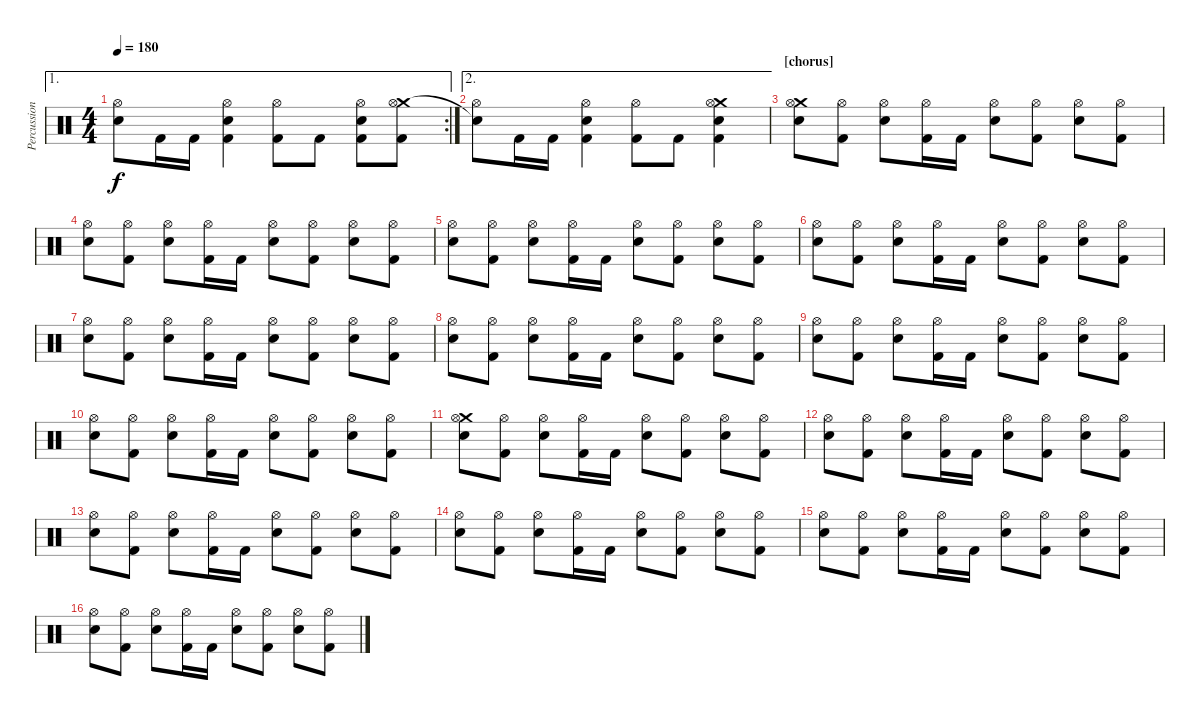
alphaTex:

\track ("Percussion" "Percussion") {instrument percussion}
\staff {score}
\articulation defaults
\ae 1
\rc 2
\ts (4 4)
\tempo 180
\clef neutral
\ks c
("Hi-Hat (open)" "Snare (hit)"{t}).8{dy f} "Kick (hit) 2".16 "Kick (hit) 2".16 ("Hi-Hat (open)" "Electric Snare (hit)" "Kick (hit) 2").4 ("Hi-Hat (open)" "Kick (hit) 2").8 "Kick (hit) 2".8 ("Hi-Hat (open)" "Electric Snare (hit)" "Kick (hit) 2").8 ("Crash medium (hit)" "Hi-Hat (open)" "Kick (hit) 2").8 |
\ae 2
("Hi-Hat (open)" "Snare (hit)"{t}).8 "Kick (hit) 2".16 "Kick (hit) 2".16 ("Hi-Hat (open)" "Electric Snare (hit)" "Kick (hit) 2").4 ("Hi-Hat (open)" "Kick (hit) 2").8 "Kick (hit) 2".8 ("Crash medium (hit)" "Hi-Hat (open)" "Electric Snare (hit)" "Kick (hit) 2").4 |
\section ("" "[chorus]")
("Crash medium (hit)" "Hi-Hat (open)" "Electric Snare (hit)").8 ("Hi-Hat (open)" "Kick (hit) 2").8 ("Hi-Hat (open)" "Electric Snare (hit)").8 ("Hi-Hat (open)" "Kick (hit) 2").16 "Kick (hit) 2".16 ("Hi-Hat (open)" "Electric Snare (hit)").8 ("Hi-Hat (open)" "Kick (hit) 2").8 ("Hi-Hat (open)" "Electric Snare (hit)").8 ("Hi-Hat (open)" "Kick (hit) 2").8 |
("Hi-Hat (open)" "Electric Snare (hit)").8 ("Hi-Hat (open)" "Kick (hit) 2").8 ("Hi-Hat (open)" "Electric Snare (hit)").8 ("Hi-Hat (open)" "Kick (hit) 2").16 "Kick (hit) 2".16 ("Hi-Hat (open)" "Electric Snare (hit)").8 ("Hi-Hat (open)" "Kick (hit) 2").8 ("Hi-Hat (open)" "Electric Snare (hit)").8 ("Hi-Hat (open)" "Kick (hit) 2").8 |
("Hi-Hat (open)" "Electric Snare (hit)").8 ("Hi-Hat (open)" "Kick (hit) 2").8 ("Hi-Hat (open)" "Electric Snare (hit)").8 ("Hi-Hat (open)" "Kick (hit) 2").16 "Kick (hit) 2".16 ("Hi-Hat (open)" "Electric Snare (hit)").8 ("Hi-Hat (open)" "Kick (hit) 2").8 ("Hi-Hat (open)" "Electric Snare (hit)").8 ("Hi-Hat (open)" "Kick (hit) 2").8 |
("Hi-Hat (open)" "Electric Snare (hit)").8 ("Hi-Hat (open)" "Kick (hit) 2").8 ("Hi-Hat (open)" "Electric Snare (hit)").8 ("Hi-Hat (open)" "Kick (hit) 2").16 "Kick (hit) 2".16 ("Hi-Hat (open)" "Electric Snare (hit)").8 ("Hi-Hat (open)" "Kick (hit) 2").8 ("Hi-Hat (open)" "Electric Snare (hit)").8 ("Hi-Hat (open)" "Kick (hit) 2").8 |
("Hi-Hat (open)" "Electric Snare (hit)").8 ("Hi-Hat (open)" "Kick (hit) 2").8 ("Hi-Hat (open)" "Electric Snare (hit)").8 ("Hi-Hat (open)" "Kick (hit) 2").16 "Kick (hit) 2".16 ("Hi-Hat (open)" "Electric Snare (hit)").8 ("Hi-Hat (open)" "Kick (hit) 2").8 ("Hi-Hat (open)" "Electric Snare (hit)").8 ("Hi-Hat (open)" "Kick (hit) 2").8 |
("Hi-Hat (open)" "Electric Snare (hit)").8 ("Hi-Hat (open)" "Kick (hit) 2").8 ("Hi-Hat (open)" "Electric Snare (hit)").8 ("Hi-Hat (open)" "Kick (hit) 2").16 "Kick (hit) 2".16 ("Hi-Hat (open)" "Electric Snare (hit)").8 ("Hi-Hat (open)" "Kick (hit) 2").8 ("Hi-Hat (open)" "Electric Snare (hit)").8 ("Hi-Hat (open)" "Kick (hit) 2").8 |
("Hi-Hat (open)" "Electric Snare (hit)").8 ("Hi-Hat (open)" "Kick (hit) 2").8 ("Hi-Hat (open)" "Electric Snare (hit)").8 ("Hi-Hat (open)" "Kick (hit) 2").16 "Kick (hit) 2".16 ("Hi-Hat (open)" "Electric Snare (hit)").8 ("Hi-Hat (open)" "Kick (hit) 2").8 ("Hi-Hat (open)" "Electric Snare (hit)").8 ("Hi-Hat (open)" "Kick (hit) 2").8 |
("Hi-Hat (open)" "Electric Snare (hit)").8 ("Hi-Hat (open)" "Kick (hit) 2").8 ("Hi-Hat (open)" "Electric Snare (hit)").8 ("Hi-Hat (open)" "Kick (hit) 2").16 "Kick (hit) 2".16 ("Hi-Hat (open)" "Electric Snare (hit)").8 ("Hi-Hat (open)" "Kick (hit) 2").8 ("Hi-Hat (open)" "Electric Snare (hit)").8 ("Hi-Hat (open)" "Kick (hit) 2").8 |
("Crash medium (hit)" "Hi-Hat (open)" "Electric Snare (hit)").8 ("Hi-Hat (open)" "Kick (hit) 2").8 ("Hi-Hat (open)" "Electric Snare (hit)").8 ("Hi-Hat (open)" "Kick (hit) 2").16 "Kick (hit) 2".16 ("Hi-Hat (open)" "Electric Snare (hit)").8 ("Hi-Hat (open)" "Kick (hit) 2").8 ("Hi-Hat (open)" "Electric Snare (hit)").8 ("Hi-Hat (open)" "Kick (hit) 2").8 |
("Hi-Hat (open)" "Electric Snare (hit)").8 ("Hi-Hat (open)" "Kick (hit) 2").8 ("Hi-Hat (open)" "Electric Snare (hit)").8 ("Hi-Hat (open)" "Kick (hit) 2").16 "Kick (hit) 2".16 ("Hi-Hat (open)" "Electric Snare (hit)").8 ("Hi-Hat (open)" "Kick (hit) 2").8 ("Hi-Hat (open)" "Electric Snare (hit)").8 ("Hi-Hat (open)" "Kick (hit) 2").8 |
("Hi-Hat (open)" "Electric Snare (hit)").8 ("Hi-Hat (open)" "Kick (hit) 2").8 ("Hi-Hat (open)" "Electric Snare (hit)").8 ("Hi-Hat (open)" "Kick (hit) 2").16 "Kick (hit) 2".16 ("Hi-Hat (open)" "Electric Snare (hit)").8 ("Hi-Hat (open)" "Kick (hit) 2").8 ("Hi-Hat (open)" "Electric Snare (hit)").8 ("Hi-Hat (open)" "Kick (hit) 2").8 |
("Hi-Hat (open)" "Electric Snare (hit)").8 ("Hi-Hat (open)" "Kick (hit) 2").8 ("Hi-Hat (open)" "Electric Snare (hit)").8 ("Hi-Hat (open)" "Kick (hit) 2").16 "Kick (hit) 2".16 ("Hi-Hat (open)" "Electric Snare (hit)").8 ("Hi-Hat (open)" "Kick (hit) 2").8 ("Hi-Hat (open)" "Electric Snare (hit)").8 ("Hi-Hat (open)" "Kick (hit) 2").8 |
("Hi-Hat (open)" "Electric Snare (hit)").8 ("Hi-Hat (open)" "Kick (hit) 2").8 ("Hi-Hat (open)" "Electric Snare (hit)").8 ("Hi-Hat (open)" "Kick (hit) 2").16 "Kick (hit) 2".16 ("Hi-Hat (open)" "Electric Snare (hit)").8 ("Hi-Hat (open)" "Kick (hit) 2").8 ("Hi-Hat (open)" "Electric Snare (hit)").8 ("Hi-Hat (open)" "Kick (hit) 2").8 |
("Hi-Hat (open)" "Electric Snare (hit)").8 ("Hi-Hat (open)" "Kick (hit) 2").8 ("Hi-Hat (open)" "Electric Snare (hit)").8 ("Hi-Hat (open)" "Kick (hit) 2").16 "Kick (hit) 2".16 ("Hi-Hat (open)" "Electric Snare (hit)").8 ("Hi-Hat (open)" "Kick (hit) 2").8 ("Hi-Hat (open)" "Electric Snare (hit)").8 ("Hi-Hat (open)" "Kick (hit) 2").8
